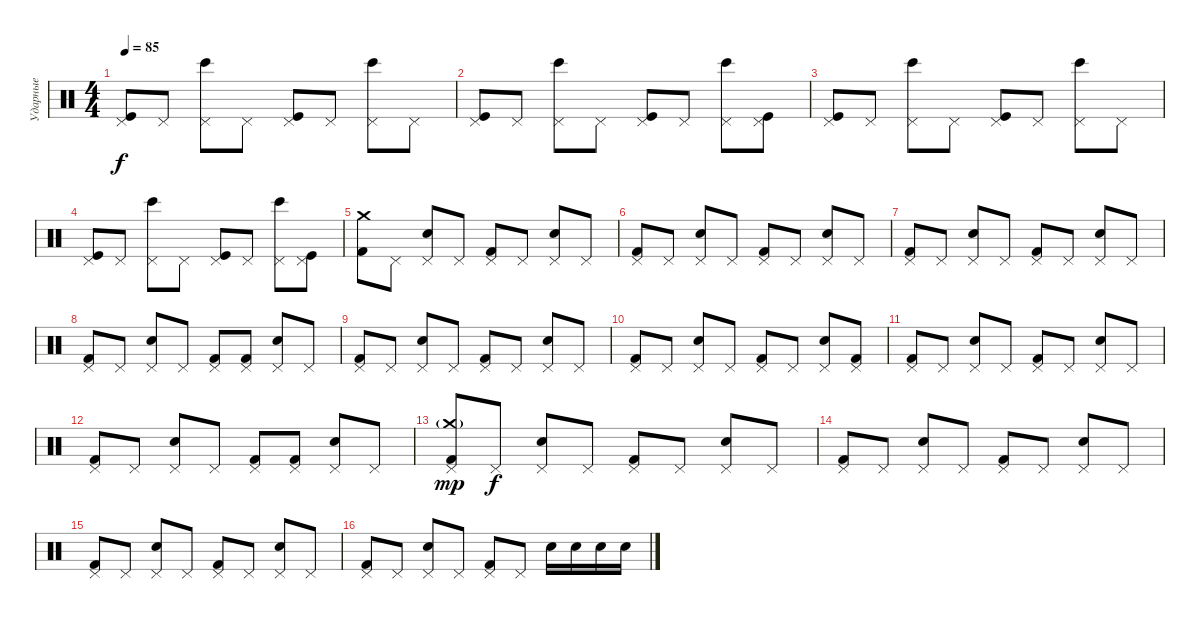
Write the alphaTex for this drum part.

\track ("Ударные" "Ударные") {instrument percussion}
\staff {score}
\articulation defaults
\ts (4 4)
\tempo 85
\clef neutral
\ks c
("Pedal Hi-Hat (hit)" "Kick (hit)").8{dy f} "Pedal Hi-Hat (hit)".8 ("Pedal Hi-Hat (hit)" "Bongo High (hit)").8 "Pedal Hi-Hat (hit)".8 ("Pedal Hi-Hat (hit)" "Kick (hit)").8 "Pedal Hi-Hat (hit)".8 ("Pedal Hi-Hat (hit)" "Bongo High (hit)").8 "Pedal Hi-Hat (hit)".8 |
("Pedal Hi-Hat (hit)" "Kick (hit)").8 "Pedal Hi-Hat (hit)".8 ("Pedal Hi-Hat (hit)" "Bongo High (hit)").8 "Pedal Hi-Hat (hit)".8 ("Pedal Hi-Hat (hit)" "Kick (hit)").8 "Pedal Hi-Hat (hit)".8 ("Pedal Hi-Hat (hit)" "Bongo High (hit)").8 ("Pedal Hi-Hat (hit)" "Kick (hit)").8 |
("Pedal Hi-Hat (hit)" "Kick (hit)").8 "Pedal Hi-Hat (hit)".8 ("Pedal Hi-Hat (hit)" "Bongo High (hit)").8 "Pedal Hi-Hat (hit)".8 ("Pedal Hi-Hat (hit)" "Kick (hit)").8 "Pedal Hi-Hat (hit)".8 ("Pedal Hi-Hat (hit)" "Bongo High (hit)").8 "Pedal Hi-Hat (hit)".8 |
("Pedal Hi-Hat (hit)" "Kick (hit)").8 "Pedal Hi-Hat (hit)".8 ("Pedal Hi-Hat (hit)" "Bongo High (hit)").8 "Pedal Hi-Hat (hit)".8 ("Pedal Hi-Hat (hit)" "Kick (hit)").8 "Pedal Hi-Hat (hit)".8 ("Pedal Hi-Hat (hit)" "Bongo High (hit)").8 ("Pedal Hi-Hat (hit)" "Kick (hit)").8 |
("Crash medium (hit)" "Kick (hit) 2").8 "Pedal Hi-Hat (hit)".8 ("Pedal Hi-Hat (hit)" "Electric Snare (hit)").8 "Pedal Hi-Hat (hit)".8 ("Pedal Hi-Hat (hit)" "Kick (hit) 2").8 "Pedal Hi-Hat (hit)".8 ("Pedal Hi-Hat (hit)" "Electric Snare (hit)").8 "Pedal Hi-Hat (hit)".8 |
("Pedal Hi-Hat (hit)" "Kick (hit) 2").8 "Pedal Hi-Hat (hit)".8 ("Pedal Hi-Hat (hit)" "Electric Snare (hit)").8 "Pedal Hi-Hat (hit)".8 ("Pedal Hi-Hat (hit)" "Kick (hit) 2").8 "Pedal Hi-Hat (hit)".8 ("Pedal Hi-Hat (hit)" "Electric Snare (hit)").8 "Pedal Hi-Hat (hit)".8 |
("Pedal Hi-Hat (hit)" "Kick (hit) 2").8 "Pedal Hi-Hat (hit)".8 ("Pedal Hi-Hat (hit)" "Electric Snare (hit)").8 "Pedal Hi-Hat (hit)".8 ("Pedal Hi-Hat (hit)" "Kick (hit) 2").8 "Pedal Hi-Hat (hit)".8 ("Pedal Hi-Hat (hit)" "Electric Snare (hit)").8 "Pedal Hi-Hat (hit)".8 |
("Pedal Hi-Hat (hit)" "Kick (hit) 2").8 "Pedal Hi-Hat (hit)".8 ("Pedal Hi-Hat (hit)" "Electric Snare (hit)").8 "Pedal Hi-Hat (hit)".8 ("Pedal Hi-Hat (hit)" "Kick (hit) 2").8 ("Pedal Hi-Hat (hit)" "Kick (hit) 2").8 ("Pedal Hi-Hat (hit)" "Electric Snare (hit)").8 "Pedal Hi-Hat (hit)".8 |
("Pedal Hi-Hat (hit)" "Kick (hit) 2").8 "Pedal Hi-Hat (hit)".8 ("Pedal Hi-Hat (hit)" "Electric Snare (hit)").8 "Pedal Hi-Hat (hit)".8 ("Pedal Hi-Hat (hit)" "Kick (hit) 2").8 "Pedal Hi-Hat (hit)".8 ("Pedal Hi-Hat (hit)" "Electric Snare (hit)").8 "Pedal Hi-Hat (hit)".8 |
("Pedal Hi-Hat (hit)" "Kick (hit) 2").8 "Pedal Hi-Hat (hit)".8 ("Pedal Hi-Hat (hit)" "Electric Snare (hit)").8 "Pedal Hi-Hat (hit)".8 ("Pedal Hi-Hat (hit)" "Kick (hit) 2").8 "Pedal Hi-Hat (hit)".8 ("Pedal Hi-Hat (hit)" "Electric Snare (hit)").8 ("Pedal Hi-Hat (hit)" "Kick (hit) 2").8 |
("Pedal Hi-Hat (hit)" "Kick (hit) 2").8 "Pedal Hi-Hat (hit)".8 ("Pedal Hi-Hat (hit)" "Electric Snare (hit)").8 "Pedal Hi-Hat (hit)".8 ("Pedal Hi-Hat (hit)" "Kick (hit) 2").8 "Pedal Hi-Hat (hit)".8 ("Pedal Hi-Hat (hit)" "Electric Snare (hit)").8 "Pedal Hi-Hat (hit)".8 |
("Pedal Hi-Hat (hit)" "Kick (hit) 2").8 "Pedal Hi-Hat (hit)".8 ("Pedal Hi-Hat (hit)" "Electric Snare (hit)").8 "Pedal Hi-Hat (hit)".8 ("Pedal Hi-Hat (hit)" "Kick (hit) 2").8 ("Pedal Hi-Hat (hit)" "Kick (hit) 2").8 ("Pedal Hi-Hat (hit)" "Electric Snare (hit)").8 "Pedal Hi-Hat (hit)".8 |
("Crash medium (hit)"{g} "Pedal Hi-Hat (hit)" "Kick (hit) 2").8{dy mp} "Pedal Hi-Hat (hit)".8{dy f} ("Pedal Hi-Hat (hit)" "Electric Snare (hit)").8 "Pedal Hi-Hat (hit)".8 ("Pedal Hi-Hat (hit)" "Kick (hit) 2").8 "Pedal Hi-Hat (hit)".8 ("Pedal Hi-Hat (hit)" "Electric Snare (hit)").8 "Pedal Hi-Hat (hit)".8 |
("Pedal Hi-Hat (hit)" "Kick (hit) 2").8 "Pedal Hi-Hat (hit)".8 ("Pedal Hi-Hat (hit)" "Electric Snare (hit)").8 "Pedal Hi-Hat (hit)".8 ("Pedal Hi-Hat (hit)" "Kick (hit) 2").8 "Pedal Hi-Hat (hit)".8 ("Pedal Hi-Hat (hit)" "Electric Snare (hit)").8 "Pedal Hi-Hat (hit)".8 |
("Pedal Hi-Hat (hit)" "Kick (hit) 2").8 "Pedal Hi-Hat (hit)".8 ("Pedal Hi-Hat (hit)" "Electric Snare (hit)").8 "Pedal Hi-Hat (hit)".8 ("Pedal Hi-Hat (hit)" "Kick (hit) 2").8 "Pedal Hi-Hat (hit)".8 ("Pedal Hi-Hat (hit)" "Electric Snare (hit)").8 "Pedal Hi-Hat (hit)".8 |
("Pedal Hi-Hat (hit)" "Kick (hit) 2").8 "Pedal Hi-Hat (hit)".8 ("Pedal Hi-Hat (hit)" "Electric Snare (hit)").8 "Pedal Hi-Hat (hit)".8 ("Pedal Hi-Hat (hit)" "Kick (hit) 2").8 "Pedal Hi-Hat (hit)".8 "Electric Snare (hit)".16 "Electric Snare (hit)".16 "Electric Snare (hit)".16 "Electric Snare (hit)".16
